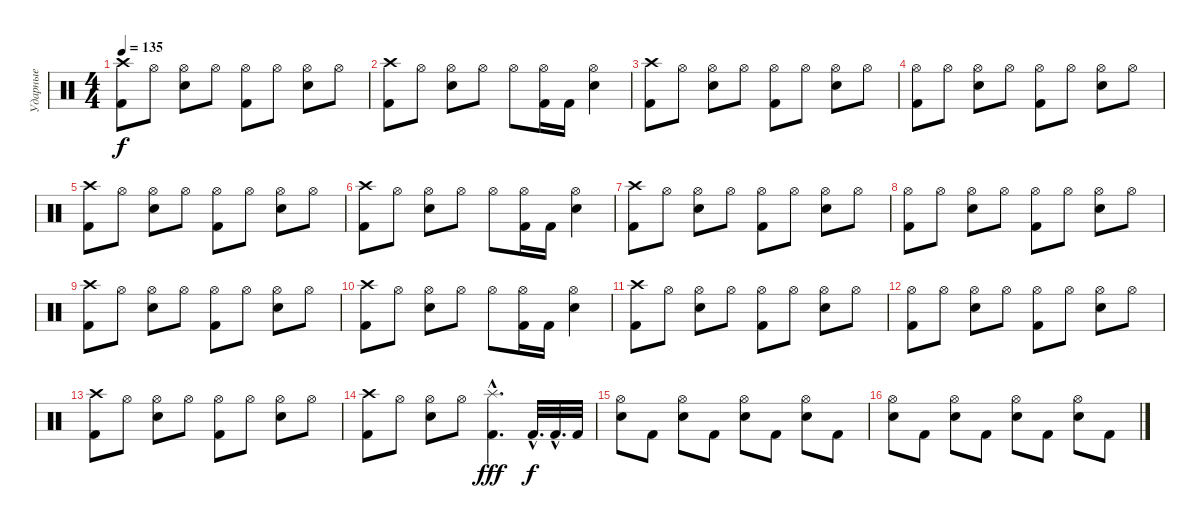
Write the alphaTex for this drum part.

\track ("Ударные" "Ударные") {instrument percussion}
\staff {score}
\articulation defaults
\ts (4 4)
\tempo 135
\clef neutral
\ks c
("Crash high (hit)" "Kick (hit) 2").8{dy f} "Hi-Hat (open)".8 ("Hi-Hat (open)" "Electric Snare (hit)").8 "Hi-Hat (open)".8 ("Hi-Hat (open)" "Kick (hit) 2").8 "Hi-Hat (open)".8 ("Hi-Hat (open)" "Electric Snare (hit)").8 "Hi-Hat (open)".8 |
("Crash high (hit)" "Kick (hit) 2").8 "Hi-Hat (open)".8 ("Hi-Hat (open)" "Electric Snare (hit)").8 "Hi-Hat (open)".8 "Hi-Hat (open)".8 ("Hi-Hat (open)" "Kick (hit) 2").16 "Kick (hit) 2".16 ("Hi-Hat (open)" "Electric Snare (hit)").4 |
("Crash high (hit)" "Kick (hit) 2").8 "Hi-Hat (open)".8 ("Hi-Hat (open)" "Electric Snare (hit)").8 "Hi-Hat (open)".8 ("Hi-Hat (open)" "Kick (hit) 2").8 "Hi-Hat (open)".8 ("Hi-Hat (open)" "Electric Snare (hit)").8 "Hi-Hat (open)".8 |
("Hi-Hat (open)" "Kick (hit) 2").8 "Hi-Hat (open)".8 ("Hi-Hat (open)" "Electric Snare (hit)").8 "Hi-Hat (open)".8 ("Hi-Hat (open)" "Kick (hit) 2").8 "Hi-Hat (open)".8 ("Hi-Hat (open)" "Electric Snare (hit)").8 "Hi-Hat (open)".8 |
("Crash high (hit)" "Kick (hit) 2").8 "Hi-Hat (open)".8 ("Hi-Hat (open)" "Electric Snare (hit)").8 "Hi-Hat (open)".8 ("Hi-Hat (open)" "Kick (hit) 2").8 "Hi-Hat (open)".8 ("Hi-Hat (open)" "Electric Snare (hit)").8 "Hi-Hat (open)".8 |
("Crash high (hit)" "Kick (hit) 2").8 "Hi-Hat (open)".8 ("Hi-Hat (open)" "Electric Snare (hit)").8 "Hi-Hat (open)".8 "Hi-Hat (open)".8 ("Hi-Hat (open)" "Kick (hit) 2").16 "Kick (hit) 2".16 ("Hi-Hat (open)" "Electric Snare (hit)").4 |
("Crash high (hit)" "Kick (hit) 2").8 "Hi-Hat (open)".8 ("Hi-Hat (open)" "Electric Snare (hit)").8 "Hi-Hat (open)".8 ("Hi-Hat (open)" "Kick (hit) 2").8 "Hi-Hat (open)".8 ("Hi-Hat (open)" "Electric Snare (hit)").8 "Hi-Hat (open)".8 |
("Hi-Hat (open)" "Kick (hit) 2").8 "Hi-Hat (open)".8 ("Hi-Hat (open)" "Electric Snare (hit)").8 "Hi-Hat (open)".8 ("Hi-Hat (open)" "Kick (hit) 2").8 "Hi-Hat (open)".8 ("Hi-Hat (open)" "Electric Snare (hit)").8 "Hi-Hat (open)".8 |
("Crash high (hit)" "Kick (hit) 2").8 "Hi-Hat (open)".8 ("Hi-Hat (open)" "Electric Snare (hit)").8 "Hi-Hat (open)".8 ("Hi-Hat (open)" "Kick (hit) 2").8 "Hi-Hat (open)".8 ("Hi-Hat (open)" "Electric Snare (hit)").8 "Hi-Hat (open)".8 |
("Crash high (hit)" "Kick (hit) 2").8 "Hi-Hat (open)".8 ("Hi-Hat (open)" "Electric Snare (hit)").8 "Hi-Hat (open)".8 "Hi-Hat (open)".8 ("Hi-Hat (open)" "Kick (hit) 2").16 "Kick (hit) 2".16 ("Hi-Hat (open)" "Electric Snare (hit)").4 |
("Crash high (hit)" "Kick (hit) 2").8 "Hi-Hat (open)".8 ("Hi-Hat (open)" "Electric Snare (hit)").8 "Hi-Hat (open)".8 ("Hi-Hat (open)" "Kick (hit) 2").8 "Hi-Hat (open)".8 ("Hi-Hat (open)" "Electric Snare (hit)").8 "Hi-Hat (open)".8 |
("Hi-Hat (open)" "Kick (hit) 2").8 "Hi-Hat (open)".8 ("Hi-Hat (open)" "Electric Snare (hit)").8 "Hi-Hat (open)".8 ("Hi-Hat (open)" "Kick (hit) 2").8 "Hi-Hat (open)".8 ("Hi-Hat (open)" "Electric Snare (hit)").8 "Hi-Hat (open)".8 |
("Crash high (hit)" "Kick (hit) 2").8 "Hi-Hat (open)".8 ("Hi-Hat (open)" "Electric Snare (hit)").8 "Hi-Hat (open)".8 ("Hi-Hat (open)" "Kick (hit) 2").8 "Hi-Hat (open)".8 ("Hi-Hat (open)" "Electric Snare (hit)").8 "Hi-Hat (open)".8 |
("Crash high (hit)" "Kick (hit) 2").8 "Hi-Hat (open)".8 ("Hi-Hat (open)" "Electric Snare (hit)").8 "Hi-Hat (open)".8 ("Splash (hit)"{hac} "Kick (hit) 2"{hac}).4{d dy fff} "Kick (hit) 2"{hac}.32{d dy f} "Kick (hit) 2"{hac}.32{d} "Kick (hit) 2".32 |
("Hi-Hat (open)" "Electric Snare (hit)").8 "Kick (hit) 2".8 ("Hi-Hat (open)" "Electric Snare (hit)").8 "Kick (hit) 2".8 ("Hi-Hat (open)" "Electric Snare (hit)").8 "Kick (hit) 2".8 ("Hi-Hat (open)" "Electric Snare (hit)").8 "Kick (hit) 2".8 |
("Hi-Hat (open)" "Electric Snare (hit)").8 "Kick (hit) 2".8 ("Hi-Hat (open)" "Electric Snare (hit)").8 "Kick (hit) 2".8 ("Hi-Hat (open)" "Electric Snare (hit)").8 "Kick (hit) 2".8 ("Hi-Hat (open)" "Electric Snare (hit)").8 "Kick (hit) 2".8
